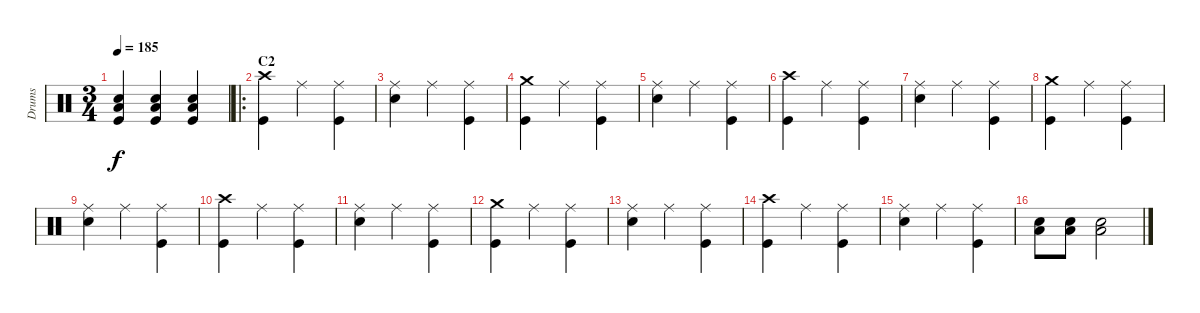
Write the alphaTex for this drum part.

\track ("Drums" "Drums") {instrument percussion}
\staff {score}
\articulation defaults
\ts (3 4)
\tempo 185
\clef neutral
\ks c
("Low Floor Tom (hit)" "Snare (hit) 2" "Kick (hit)").4{dy f} ("Low Floor Tom (hit)" "Snare (hit) 2" "Kick (hit)").4 ("Low Floor Tom (hit)" "Snare (hit) 2" "Kick (hit)").4 |
\ro
\section ("" "C2")
("Crash high (hit)" "Kick (hit)").4 "Ride (middle)".4 ("Ride (middle)" "Kick (hit)").4 |
("Ride (middle)" "Snare (hit) 2").4 "Ride (middle)".4 ("Ride (middle)" "Kick (hit)").4 |
("Crash medium (hit)" "Kick (hit)").4 "Ride (middle)".4 ("Ride (middle)" "Kick (hit)").4 |
("Ride (middle)" "Snare (hit) 2").4 "Ride (middle)".4 ("Ride (middle)" "Kick (hit)").4 |
("Crash high (hit)" "Kick (hit)").4 "Ride (middle)".4 ("Ride (middle)" "Kick (hit)").4 |
("Ride (middle)" "Snare (hit) 2").4 "Ride (middle)".4 ("Ride (middle)" "Kick (hit)").4 |
("Crash medium (hit)" "Kick (hit)").4 "Ride (middle)".4 ("Ride (middle)" "Kick (hit)").4 |
("Ride (middle)" "Snare (hit) 2").4 "Ride (middle)".4 ("Ride (middle)" "Kick (hit)").4 |
("Crash high (hit)" "Kick (hit)").4 "Ride (middle)".4 ("Ride (middle)" "Kick (hit)").4 |
("Ride (middle)" "Snare (hit) 2").4 "Ride (middle)".4 ("Ride (middle)" "Kick (hit)").4 |
("Crash medium (hit)" "Kick (hit)").4 "Ride (middle)".4 ("Ride (middle)" "Kick (hit)").4 |
("Ride (middle)" "Snare (hit) 2").4 "Ride (middle)".4 ("Ride (middle)" "Kick (hit)").4 |
("Crash high (hit)" "Kick (hit)").4 "Ride (middle)".4 ("Ride (middle)" "Kick (hit)").4 |
("Ride (middle)" "Snare (hit) 2").4 "Ride (middle)".4 ("Ride (middle)" "Kick (hit)").4 |
("Low Floor Tom (hit)" "Snare (hit) 2").8 ("Low Floor Tom (hit)" "Snare (hit) 2").8 ("Low Floor Tom (hit)" "Snare (hit) 2").2
